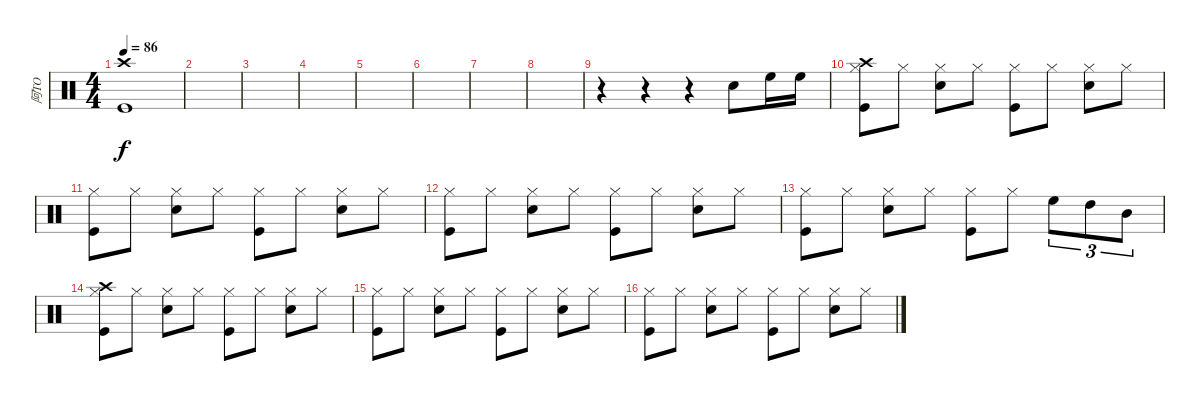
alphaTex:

\track ("阿TO" "阿TO") {instrument percussion}
\staff {score}
\articulation defaults
\ts (4 4)
\tempo 86
\clef neutral
\ks c
("Crash high (hit)" "Kick (hit)").1{dy f} |
|
|
|
|
|
|
|
r.4 r.4 r.4 "Snare (hit) 2".8 "High Floor Tom (hit)".16 "High Floor Tom (hit)".16 |
("Crash high (hit)" "Kick (hit)" "Hi-Hat (closed)").8 "Hi-Hat (closed)".8 ("Snare (hit) 2" "Hi-Hat (closed)").8 "Hi-Hat (closed)".8 ("Kick (hit)" "Hi-Hat (closed)").8 "Hi-Hat (closed)".8 ("Snare (hit) 2" "Hi-Hat (closed)").8 "Hi-Hat (closed)".8 |
("Kick (hit)" "Hi-Hat (closed)").8 "Hi-Hat (closed)".8 ("Snare (hit) 2" "Hi-Hat (closed)").8 "Hi-Hat (closed)".8 ("Kick (hit)" "Hi-Hat (closed)").8 "Hi-Hat (closed)".8 ("Snare (hit) 2" "Hi-Hat (closed)").8 "Hi-Hat (closed)".8 |
("Kick (hit)" "Hi-Hat (closed)").8 "Hi-Hat (closed)".8 ("Snare (hit) 2" "Hi-Hat (closed)").8 "Hi-Hat (closed)".8 ("Kick (hit)" "Hi-Hat (closed)").8 "Hi-Hat (closed)".8 ("Snare (hit) 2" "Hi-Hat (closed)").8 "Hi-Hat (closed)".8 |
("Kick (hit)" "Hi-Hat (closed)").8 "Hi-Hat (closed)".8 ("Snare (hit) 2" "Hi-Hat (closed)").8 "Hi-Hat (closed)".8 ("Kick (hit)" "Hi-Hat (closed)").8 "Hi-Hat (closed)".8 "High Floor Tom (hit)".8{tu (3 2)} "High Tom (hit)".8{tu (3 2)} "Mid Tom (hit)".8{tu (3 2)} |
("Crash high (hit)" "Kick (hit)" "Hi-Hat (closed)").8 "Hi-Hat (closed)".8 ("Snare (hit) 2" "Hi-Hat (closed)").8 "Hi-Hat (closed)".8 ("Kick (hit)" "Hi-Hat (closed)").8 "Hi-Hat (closed)".8 ("Snare (hit) 2" "Hi-Hat (closed)").8 "Hi-Hat (closed)".8 |
("Kick (hit)" "Hi-Hat (closed)").8 "Hi-Hat (closed)".8 ("Snare (hit) 2" "Hi-Hat (closed)").8 "Hi-Hat (closed)".8 ("Kick (hit)" "Hi-Hat (closed)").8 "Hi-Hat (closed)".8 ("Snare (hit) 2" "Hi-Hat (closed)").8 "Hi-Hat (closed)".8 |
("Kick (hit)" "Hi-Hat (closed)").8 "Hi-Hat (closed)".8 ("Snare (hit) 2" "Hi-Hat (closed)").8 "Hi-Hat (closed)".8 ("Kick (hit)" "Hi-Hat (closed)").8 "Hi-Hat (closed)".8 ("Snare (hit) 2" "Hi-Hat (closed)").8 "Hi-Hat (closed)".8
